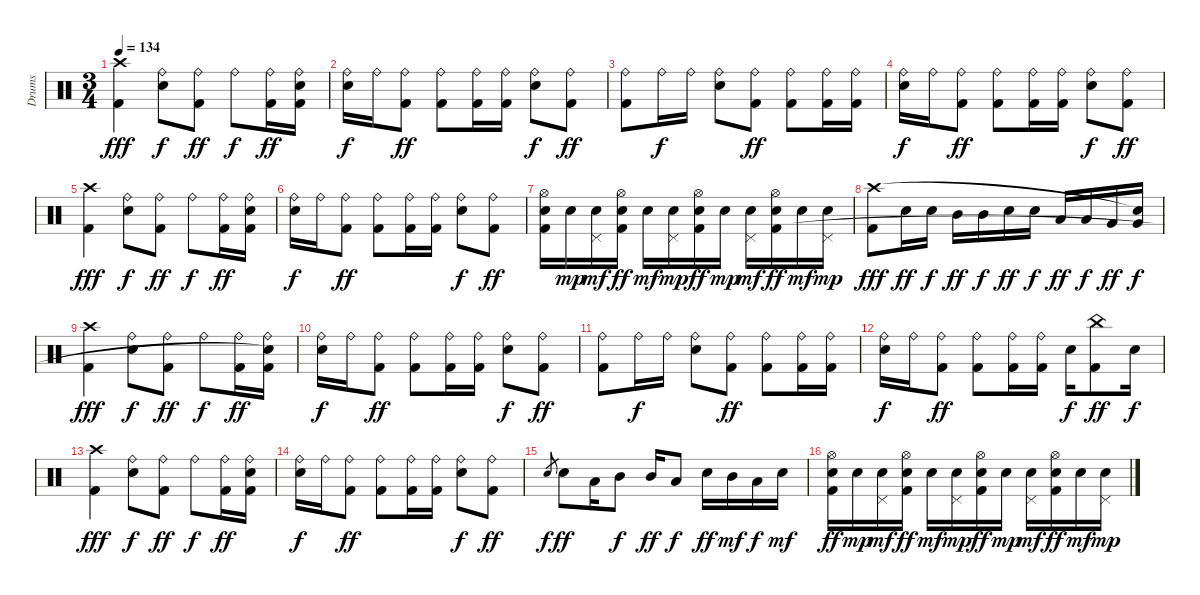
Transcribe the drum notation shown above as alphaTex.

\track ("Drums" "Drums") {instrument percussion}
\staff {score}
\articulation defaults
\ts (3 4)
\tempo 134
\clef neutral
\ks c
("Kick (hit) 2" "Crash high (hit)").4{dy fff} ("Ride (bell)" "Snare (hit) 2").8{dy f} ("Ride (bell)" "Kick (hit) 2").8{dy ff} "Ride (bell)".8{dy f} ("Ride (bell)" "Kick (hit) 2").16{dy ff} ("Ride (bell)" "Kick (hit) 2" "Snare (hit)"{t}).16 |
("Ride (bell)" "Snare (hit) 2").16{dy f} "Ride (bell)".16 ("Ride (bell)" "Kick (hit) 2").8{dy ff} ("Ride (bell)" "Kick (hit) 2").8 ("Ride (bell)" "Kick (hit) 2").16 ("Ride (bell)" "Kick (hit) 2").16 ("Ride (bell)" "Snare (hit) 2").8{dy f} ("Ride (bell)" "Kick (hit) 2").8{dy ff} |
("Ride (bell)" "Kick (hit) 2").8 "Ride (bell)".16{dy f} "Ride (bell)".16 ("Ride (bell)" "Snare (hit) 2").8 ("Ride (bell)" "Kick (hit) 2").8{dy ff} ("Ride (bell)" "Kick (hit) 2").8 ("Ride (bell)" "Kick (hit) 2").16 ("Ride (bell)" "Kick (hit) 2").16 |
("Ride (bell)" "Snare (hit) 2").16{dy f} "Ride (bell)".16 ("Ride (bell)" "Kick (hit) 2").8{dy ff} ("Ride (bell)" "Kick (hit) 2").8 ("Ride (bell)" "Kick (hit) 2").16 ("Ride (bell)" "Kick (hit) 2").16 ("Ride (bell)" "Snare (hit) 2").8{dy f} ("Ride (bell)" "Kick (hit) 2").8{dy ff} |
("Kick (hit) 2" "Crash high (hit)").4{dy fff} ("Ride (bell)" "Snare (hit) 2").8{dy f} ("Ride (bell)" "Kick (hit) 2").8{dy ff} "Ride (bell)".8{dy f} ("Ride (bell)" "Kick (hit) 2").16{dy ff} ("Ride (bell)" "Kick (hit) 2" "Snare (hit)").16 |
("Ride (bell)" "Snare (hit) 2").16{dy f} "Ride (bell)".16 ("Ride (bell)" "Kick (hit) 2").8{dy ff} ("Ride (bell)" "Kick (hit) 2").8 ("Ride (bell)" "Kick (hit) 2").16 ("Ride (bell)" "Kick (hit) 2").16 ("Ride (bell)" "Snare (hit) 2").8{dy f} ("Ride (bell)" "Kick (hit) 2").8{dy ff} |
("Hi-Hat (open)" "Snare (hit) 2" "Kick (hit) 2").16 "Snare (hit) 2".16{dy mp} ("Pedal Hi-Hat (hit)" "Snare (hit) 2").16{dy mf} ("Hi-Hat (open)" "Snare (hit) 2" "Kick (hit) 2").16{dy ff} "Snare (hit) 2".16{dy mf} ("Pedal Hi-Hat (hit)" "Snare (hit) 2").16{dy mp} ("Hi-Hat (open)" "Snare (hit) 2" "Kick (hit) 2").16{dy ff} "Snare (hit) 2".16{dy mp} ("Pedal Hi-Hat (hit)" "Snare (hit) 2").16{dy mf} ("Hi-Hat (open)" "Snare (hit) 2" "Kick (hit) 2").16{dy ff} "Snare (hit) 2".16{dy mf} ("Pedal Hi-Hat (hit)" "Snare (hit) 2").16{dy mp} |
("Kick (hit) 2" "Crash high (hit)").8{dy fff} "Snare (hit) 2".16{dy ff} "Snare (hit) 2".16{dy f} "Mid Tom (hit)".16{dy ff} "Mid Tom (hit)".16{dy f} "Snare (hit) 2".16{dy ff} "Snare (hit) 2".16{dy f} "Low Tom (hit)".16{dy ff} "Low Tom (hit)".16{dy f} "Very Low Tom (hit)".16{dy ff} ("Very Low Tom (hit)" "Snare (hit)"{t}).16{dy f} |
("Kick (hit) 2" "Crash high (hit)").4{dy fff} ("Ride (bell)" "Snare (hit) 2").8{dy f} ("Ride (bell)" "Kick (hit) 2").8{dy ff} "Ride (bell)".8{dy f} ("Ride (bell)" "Kick (hit) 2").16{dy ff} ("Ride (bell)" "Kick (hit) 2" "Snare (hit)"{t}).16 |
("Ride (bell)" "Snare (hit) 2").16{dy f} "Ride (bell)".16 ("Ride (bell)" "Kick (hit) 2").8{dy ff} ("Ride (bell)" "Kick (hit) 2").8 ("Ride (bell)" "Kick (hit) 2").16 ("Ride (bell)" "Kick (hit) 2").16 ("Ride (bell)" "Snare (hit) 2").8{dy f} ("Ride (bell)" "Kick (hit) 2").8{dy ff} |
("Ride (bell)" "Kick (hit) 2").8 "Ride (bell)".16{dy f} "Ride (bell)".16 ("Ride (bell)" "Snare (hit) 2").8 ("Ride (bell)" "Kick (hit) 2").8{dy ff} ("Ride (bell)" "Kick (hit) 2").8 ("Ride (bell)" "Kick (hit) 2").16 ("Ride (bell)" "Kick (hit) 2").16 |
("Ride (bell)" "Snare (hit) 2").16{dy f} "Ride (bell)".16 ("Ride (bell)" "Kick (hit) 2").8{dy ff} ("Ride (bell)" "Kick (hit) 2").8 ("Ride (bell)" "Kick (hit) 2").16 ("Ride (bell)" "Kick (hit) 2").16 "Snare (hit) 2".16{dy f} ("China (hit)" "Kick (hit) 2").8{dy ff} "Snare (hit) 2".16{dy f} |
("Kick (hit) 2" "Crash high (hit)").4{dy fff} ("Ride (bell)" "Snare (hit) 2").8{dy f} ("Ride (bell)" "Kick (hit) 2").8{dy ff} "Ride (bell)".8{dy f} ("Ride (bell)" "Kick (hit) 2").16{dy ff} ("Ride (bell)" "Kick (hit) 2" "Snare (hit)").16 |
("Ride (bell)" "Snare (hit) 2").16{dy f} "Ride (bell)".16 ("Ride (bell)" "Kick (hit) 2").8{dy ff} ("Ride (bell)" "Kick (hit) 2").8 ("Ride (bell)" "Kick (hit) 2").16 ("Ride (bell)" "Kick (hit) 2").16 ("Ride (bell)" "Snare (hit) 2").8{dy f} ("Ride (bell)" "Kick (hit) 2").8{dy ff} |
"Snare (hit) 2".8{gr dy f} "Snare (hit) 2".8{dy ff} "Low Tom (hit)".16 "Mid Tom (hit)".8{dy f} "Mid Tom (hit)".16{dy ff} "Low Tom (hit)".8{dy f} "Snare (hit) 2".16{dy ff} "Mid Tom (hit)".16{dy mf} "Low Tom (hit)".16{dy f} "Snare (hit) 2".16{dy mf} |
("Hi-Hat (open)" "Snare (hit) 2" "Kick (hit) 2").16{dy ff} "Snare (hit) 2".16{dy mp} ("Pedal Hi-Hat (hit)" "Snare (hit) 2").16{dy mf} ("Hi-Hat (open)" "Snare (hit) 2" "Kick (hit) 2").16{dy ff} "Snare (hit) 2".16{dy mf} ("Pedal Hi-Hat (hit)" "Snare (hit) 2").16{dy mp} ("Hi-Hat (open)" "Snare (hit) 2" "Kick (hit) 2").16{dy ff} "Snare (hit) 2".16{dy mp} ("Pedal Hi-Hat (hit)" "Snare (hit) 2").16{dy mf} ("Hi-Hat (open)" "Snare (hit) 2" "Kick (hit) 2").16{dy ff} "Snare (hit) 2".16{dy mf} ("Pedal Hi-Hat (hit)" "Snare (hit) 2").16{dy mp}
